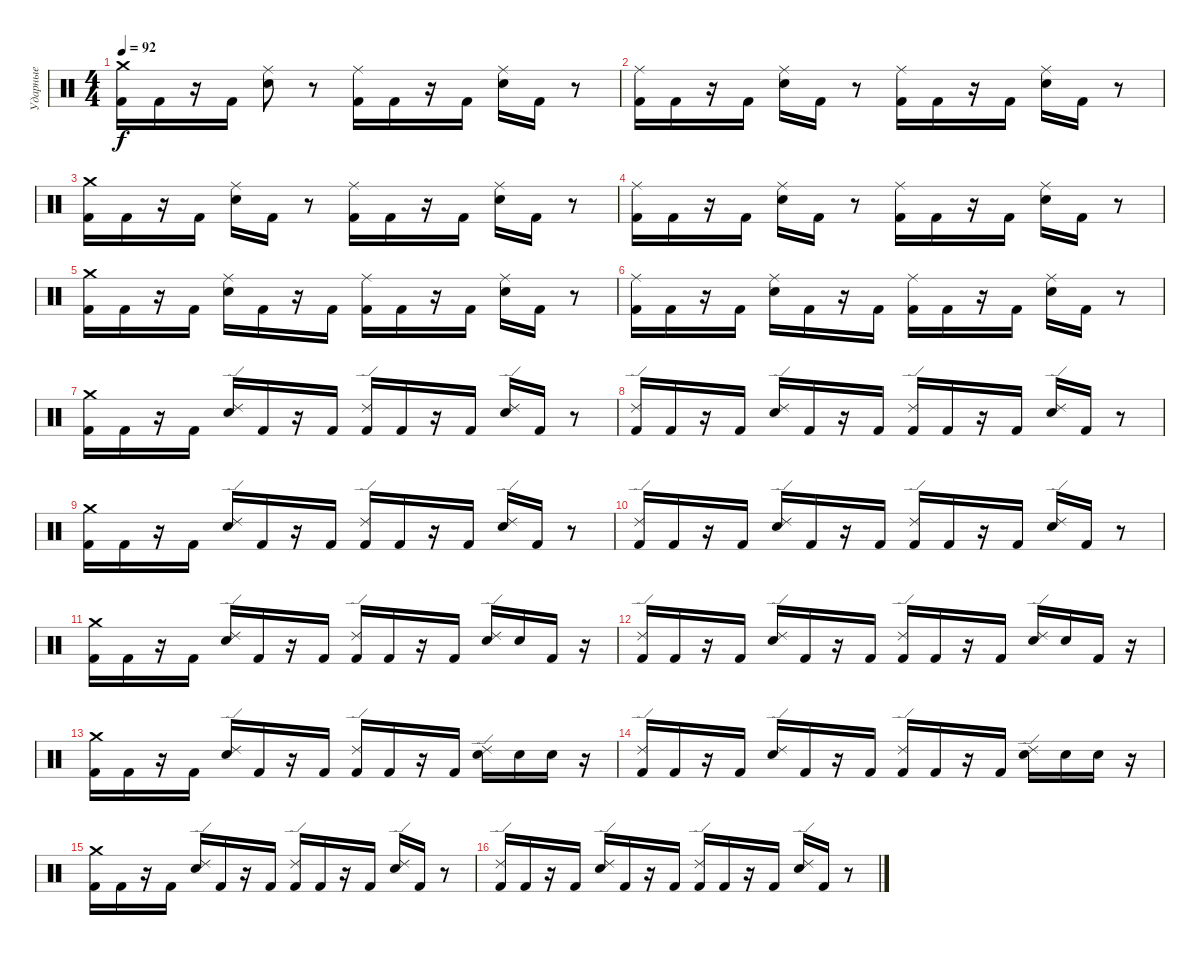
\track ("Ударные" "Ударные") {instrument percussion}
\staff {score}
\articulation defaults
\ts (4 4)
\tempo 92
\clef neutral
\ks c
("Crash medium (hit)" "Kick (hit) 2").16{dy f} "Kick (hit) 2".16 r.16 "Kick (hit) 2".16 ("Ride (middle)" "Electric Snare (hit)").8 r.8 ("Ride (middle)" "Kick (hit) 2").16 "Kick (hit) 2".16 r.16 "Kick (hit) 2".16 ("Ride (middle)" "Electric Snare (hit)").16 "Kick (hit) 2".16 r.8 |
("Ride (middle)" "Kick (hit) 2").16 "Kick (hit) 2".16 r.16 "Kick (hit) 2".16 ("Ride (middle)" "Electric Snare (hit)").16 "Kick (hit) 2".16 r.8 ("Ride (middle)" "Kick (hit) 2").16 "Kick (hit) 2".16 r.16 "Kick (hit) 2".16 ("Ride (middle)" "Electric Snare (hit)").16 "Kick (hit) 2".16 r.8 |
("Crash medium (hit)" "Kick (hit) 2").16 "Kick (hit) 2".16 r.16 "Kick (hit) 2".16 ("Ride (middle)" "Electric Snare (hit)").16 "Kick (hit) 2".16 r.8 ("Ride (middle)" "Kick (hit) 2").16 "Kick (hit) 2".16 r.16 "Kick (hit) 2".16 ("Ride (middle)" "Electric Snare (hit)").16 "Kick (hit) 2".16 r.8 |
("Ride (middle)" "Kick (hit) 2").16 "Kick (hit) 2".16 r.16 "Kick (hit) 2".16 ("Ride (middle)" "Electric Snare (hit)").16 "Kick (hit) 2".16 r.8 ("Ride (middle)" "Kick (hit) 2").16 "Kick (hit) 2".16 r.16 "Kick (hit) 2".16 ("Ride (middle)" "Electric Snare (hit)").16 "Kick (hit) 2".16 r.8 |
("Crash medium (hit)" "Kick (hit) 2").16 "Kick (hit) 2".16 r.16 "Kick (hit) 2".16 ("Ride (middle)" "Electric Snare (hit)").16 "Kick (hit) 2".16 r.16 "Kick (hit) 2".16 ("Ride (middle)" "Kick (hit) 2").16 "Kick (hit) 2".16 r.16 "Kick (hit) 2".16 ("Ride (middle)" "Electric Snare (hit)").16 "Kick (hit) 2".16 r.8 |
("Ride (middle)" "Kick (hit) 2").16 "Kick (hit) 2".16 r.16 "Kick (hit) 2".16 ("Ride (middle)" "Electric Snare (hit)").16 "Kick (hit) 2".16 r.16 "Kick (hit) 2".16 ("Ride (middle)" "Kick (hit) 2").16 "Kick (hit) 2".16 r.16 "Kick (hit) 2".16 ("Ride (middle)" "Electric Snare (hit)").16 "Kick (hit) 2".16 r.8 |
("Crash medium (hit)" "Kick (hit) 2").16 "Kick (hit) 2".16 r.16 "Kick (hit) 2".16 ("Ride (edge) 2" "Electric Snare (hit)").16 "Kick (hit) 2".16 r.16 "Kick (hit) 2".16 ("Ride (edge) 2" "Kick (hit) 2").16 "Kick (hit) 2".16 r.16 "Kick (hit) 2".16 ("Ride (edge) 2" "Electric Snare (hit)").16 "Kick (hit) 2".16 r.8 |
("Ride (edge) 2" "Kick (hit) 2").16 "Kick (hit) 2".16 r.16 "Kick (hit) 2".16 ("Ride (edge) 2" "Electric Snare (hit)").16 "Kick (hit) 2".16 r.16 "Kick (hit) 2".16 ("Ride (edge) 2" "Kick (hit) 2").16 "Kick (hit) 2".16 r.16 "Kick (hit) 2".16 ("Ride (edge) 2" "Electric Snare (hit)").16 "Kick (hit) 2".16 r.8 |
("Crash medium (hit)" "Kick (hit) 2").16 "Kick (hit) 2".16 r.16 "Kick (hit) 2".16 ("Ride (edge) 2" "Electric Snare (hit)").16 "Kick (hit) 2".16 r.16 "Kick (hit) 2".16 ("Ride (edge) 2" "Kick (hit) 2").16 "Kick (hit) 2".16 r.16 "Kick (hit) 2".16 ("Ride (edge) 2" "Electric Snare (hit)").16 "Kick (hit) 2".16 r.8 |
("Ride (edge) 2" "Kick (hit) 2").16 "Kick (hit) 2".16 r.16 "Kick (hit) 2".16 ("Ride (edge) 2" "Electric Snare (hit)").16 "Kick (hit) 2".16 r.16 "Kick (hit) 2".16 ("Ride (edge) 2" "Kick (hit) 2").16 "Kick (hit) 2".16 r.16 "Kick (hit) 2".16 ("Ride (edge) 2" "Electric Snare (hit)").16 "Kick (hit) 2".16 r.8 |
("Crash medium (hit)" "Kick (hit) 2").16 "Kick (hit) 2".16 r.16 "Kick (hit) 2".16 ("Ride (edge) 2" "Electric Snare (hit)").16 "Kick (hit) 2".16 r.16 "Kick (hit) 2".16 ("Ride (edge) 2" "Kick (hit) 2").16 "Kick (hit) 2".16 r.16 "Kick (hit) 2".16 ("Ride (edge) 2" "Electric Snare (hit)").16 "Electric Snare (hit)".16 "Kick (hit) 2".16 r.16 |
("Ride (edge) 2" "Kick (hit) 2").16 "Kick (hit) 2".16 r.16 "Kick (hit) 2".16 ("Ride (edge) 2" "Electric Snare (hit)").16 "Kick (hit) 2".16 r.16 "Kick (hit) 2".16 ("Ride (edge) 2" "Kick (hit) 2").16 "Kick (hit) 2".16 r.16 "Kick (hit) 2".16 ("Ride (edge) 2" "Electric Snare (hit)").16 "Electric Snare (hit)".16 "Kick (hit) 2".16 r.16 |
("Crash medium (hit)" "Kick (hit) 2").16 "Kick (hit) 2".16 r.16 "Kick (hit) 2".16 ("Ride (edge) 2" "Electric Snare (hit)").16 "Kick (hit) 2".16 r.16 "Kick (hit) 2".16 ("Ride (edge) 2" "Kick (hit) 2").16 "Kick (hit) 2".16 r.16 "Kick (hit) 2".16 ("Ride (edge) 2" "Electric Snare (hit)").16 "Electric Snare (hit)".16 "Electric Snare (hit)".16 r.16 |
("Ride (edge) 2" "Kick (hit) 2").16 "Kick (hit) 2".16 r.16 "Kick (hit) 2".16 ("Ride (edge) 2" "Electric Snare (hit)").16 "Kick (hit) 2".16 r.16 "Kick (hit) 2".16 ("Ride (edge) 2" "Kick (hit) 2").16 "Kick (hit) 2".16 r.16 "Kick (hit) 2".16 ("Ride (edge) 2" "Electric Snare (hit)").16 "Electric Snare (hit)".16 "Electric Snare (hit)".16 r.16 |
("Crash medium (hit)" "Kick (hit) 2").16 "Kick (hit) 2".16 r.16 "Kick (hit) 2".16 ("Ride (edge) 2" "Electric Snare (hit)").16 "Kick (hit) 2".16 r.16 "Kick (hit) 2".16 ("Ride (edge) 2" "Kick (hit) 2").16 "Kick (hit) 2".16 r.16 "Kick (hit) 2".16 ("Ride (edge) 2" "Electric Snare (hit)").16 "Kick (hit) 2".16 r.8 |
("Ride (edge) 2" "Kick (hit) 2").16 "Kick (hit) 2".16 r.16 "Kick (hit) 2".16 ("Ride (edge) 2" "Electric Snare (hit)").16 "Kick (hit) 2".16 r.16 "Kick (hit) 2".16 ("Ride (edge) 2" "Kick (hit) 2").16 "Kick (hit) 2".16 r.16 "Kick (hit) 2".16 ("Ride (edge) 2" "Electric Snare (hit)").16 "Kick (hit) 2".16 r.8
